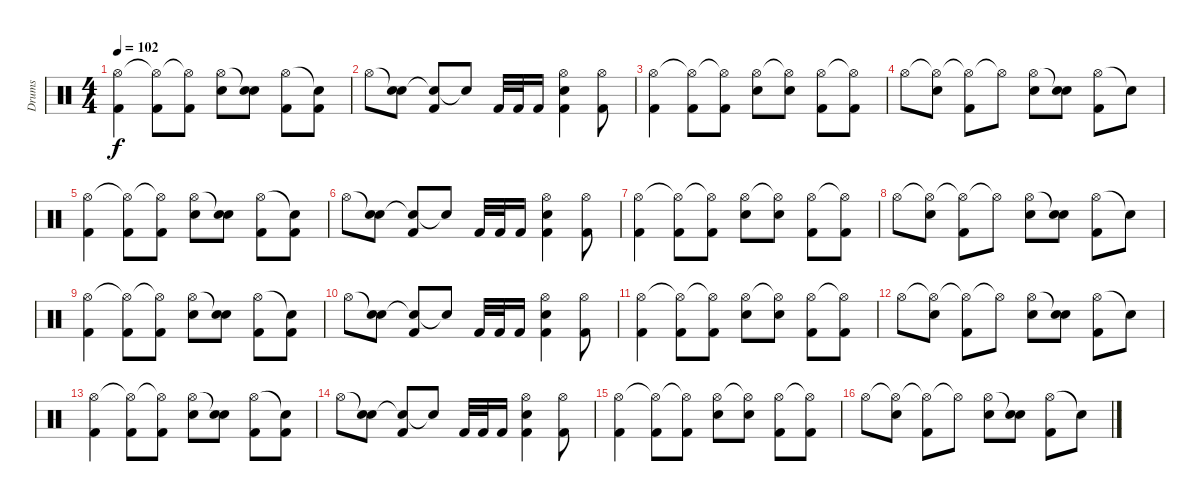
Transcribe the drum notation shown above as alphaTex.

\track ("Drums" "Drums") {instrument percussion}
\staff {score}
\articulation defaults
\ts (4 4)
\tempo 102
\clef neutral
\ks c
("Hi-Hat (open)" "Kick (hit) 2").4{dy f} ("Hi-Hat (open)"{t} "Kick (hit) 2").8 ("Hi-Hat (open)"{t} "Kick (hit) 2").8 ("Hi-Hat (open)" "Snare (hit) 2").8 ("Snare (hit)"{t} "Snare (hit) 2").8 ("Hi-Hat (open)" "Kick (hit) 2").8 ("Snare (hit)"{t} "Kick (hit) 2").8 |
"Hi-Hat (open)".8 ("Snare (hit)"{t} "Snare (hit) 2").8 ("Snare (hit)"{t} "Kick (hit) 2").8 "Snare (hit)"{t}.8 "Kick (hit) 2".32 "Kick (hit) 2".32 "Kick (hit) 2".16 ("Hi-Hat (open)" "Snare (hit) 2" "Kick (hit) 2").4 ("Hi-Hat (open)" "Kick (hit) 2").8 |
("Hi-Hat (open)" "Kick (hit) 2").4 ("Hi-Hat (open)"{t} "Kick (hit) 2").8 ("Hi-Hat (open)"{t} "Kick (hit) 2").8 ("Hi-Hat (open)" "Snare (hit) 2").8 ("Hi-Hat (open)"{t} "Snare (hit) 2").8 ("Hi-Hat (open)" "Kick (hit) 2").8 ("Hi-Hat (open)"{t} "Kick (hit) 2").8 |
"Hi-Hat (open)".8 ("Hi-Hat (open)"{t} "Snare (hit) 2").8 ("Hi-Hat (open)"{t} "Kick (hit) 2").8 "Hi-Hat (open)"{t}.8 ("Hi-Hat (open)" "Snare (hit) 2").8 ("Snare (hit)"{t} "Snare (hit) 2").8 ("Hi-Hat (open)" "Kick (hit) 2").8 "Snare (hit)"{t}.8 |
("Hi-Hat (open)" "Kick (hit) 2").4 ("Hi-Hat (open)"{t} "Kick (hit) 2").8 ("Hi-Hat (open)"{t} "Kick (hit) 2").8 ("Hi-Hat (open)" "Snare (hit) 2").8 ("Snare (hit)"{t} "Snare (hit) 2").8 ("Hi-Hat (open)" "Kick (hit) 2").8 ("Snare (hit)"{t} "Kick (hit) 2").8 |
"Hi-Hat (open)".8 ("Snare (hit)"{t} "Snare (hit) 2").8 ("Snare (hit)"{t} "Kick (hit) 2").8 "Snare (hit)"{t}.8 "Kick (hit) 2".32 "Kick (hit) 2".32 "Kick (hit) 2".16 ("Hi-Hat (open)" "Snare (hit) 2" "Kick (hit) 2").4 ("Hi-Hat (open)" "Kick (hit) 2").8 |
("Hi-Hat (open)" "Kick (hit) 2").4 ("Hi-Hat (open)"{t} "Kick (hit) 2").8 ("Hi-Hat (open)"{t} "Kick (hit) 2").8 ("Hi-Hat (open)" "Snare (hit) 2").8 ("Hi-Hat (open)"{t} "Snare (hit) 2").8 ("Hi-Hat (open)" "Kick (hit) 2").8 ("Hi-Hat (open)"{t} "Kick (hit) 2").8 |
"Hi-Hat (open)".8 ("Hi-Hat (open)"{t} "Snare (hit) 2").8 ("Hi-Hat (open)"{t} "Kick (hit) 2").8 "Hi-Hat (open)"{t}.8 ("Hi-Hat (open)" "Snare (hit) 2").8 ("Snare (hit)"{t} "Snare (hit) 2").8 ("Hi-Hat (open)" "Kick (hit) 2").8 "Snare (hit)"{t}.8 |
("Hi-Hat (open)" "Kick (hit) 2").4 ("Hi-Hat (open)"{t} "Kick (hit) 2").8 ("Hi-Hat (open)"{t} "Kick (hit) 2").8 ("Hi-Hat (open)" "Snare (hit) 2").8 ("Snare (hit)"{t} "Snare (hit) 2").8 ("Hi-Hat (open)" "Kick (hit) 2").8 ("Snare (hit)"{t} "Kick (hit) 2").8 |
"Hi-Hat (open)".8 ("Snare (hit)"{t} "Snare (hit) 2").8 ("Snare (hit)"{t} "Kick (hit) 2").8 "Snare (hit)"{t}.8 "Kick (hit) 2".32 "Kick (hit) 2".32 "Kick (hit) 2".16 ("Hi-Hat (open)" "Snare (hit) 2" "Kick (hit) 2").4 ("Hi-Hat (open)" "Kick (hit) 2").8 |
("Hi-Hat (open)" "Kick (hit) 2").4 ("Hi-Hat (open)"{t} "Kick (hit) 2").8 ("Hi-Hat (open)"{t} "Kick (hit) 2").8 ("Hi-Hat (open)" "Snare (hit) 2").8 ("Hi-Hat (open)"{t} "Snare (hit) 2").8 ("Hi-Hat (open)" "Kick (hit) 2").8 ("Hi-Hat (open)"{t} "Kick (hit) 2").8 |
"Hi-Hat (open)".8 ("Hi-Hat (open)"{t} "Snare (hit) 2").8 ("Hi-Hat (open)"{t} "Kick (hit) 2").8 "Hi-Hat (open)"{t}.8 ("Hi-Hat (open)" "Snare (hit) 2").8 ("Snare (hit)"{t} "Snare (hit) 2").8 ("Hi-Hat (open)" "Kick (hit) 2").8 "Snare (hit)"{t}.8 |
("Hi-Hat (open)" "Kick (hit) 2").4 ("Hi-Hat (open)"{t} "Kick (hit) 2").8 ("Hi-Hat (open)"{t} "Kick (hit) 2").8 ("Hi-Hat (open)" "Snare (hit) 2").8 ("Snare (hit)"{t} "Snare (hit) 2").8 ("Hi-Hat (open)" "Kick (hit) 2").8 ("Snare (hit)"{t} "Kick (hit) 2").8 |
"Hi-Hat (open)".8 ("Snare (hit)"{t} "Snare (hit) 2").8 ("Snare (hit)"{t} "Kick (hit) 2").8 "Snare (hit)"{t}.8 "Kick (hit) 2".32 "Kick (hit) 2".32 "Kick (hit) 2".16 ("Hi-Hat (open)" "Snare (hit) 2" "Kick (hit) 2").4 ("Hi-Hat (open)" "Kick (hit) 2").8 |
("Hi-Hat (open)" "Kick (hit) 2").4 ("Hi-Hat (open)"{t} "Kick (hit) 2").8 ("Hi-Hat (open)"{t} "Kick (hit) 2").8 ("Hi-Hat (open)" "Snare (hit) 2").8 ("Hi-Hat (open)"{t} "Snare (hit) 2").8 ("Hi-Hat (open)" "Kick (hit) 2").8 ("Hi-Hat (open)"{t} "Kick (hit) 2").8 |
"Hi-Hat (open)".8 ("Hi-Hat (open)"{t} "Snare (hit) 2").8 ("Hi-Hat (open)"{t} "Kick (hit) 2").8 "Hi-Hat (open)"{t}.8 ("Hi-Hat (open)" "Snare (hit) 2").8 ("Snare (hit)"{t} "Snare (hit) 2").8 ("Hi-Hat (open)" "Kick (hit) 2").8 "Snare (hit)"{t}.8
